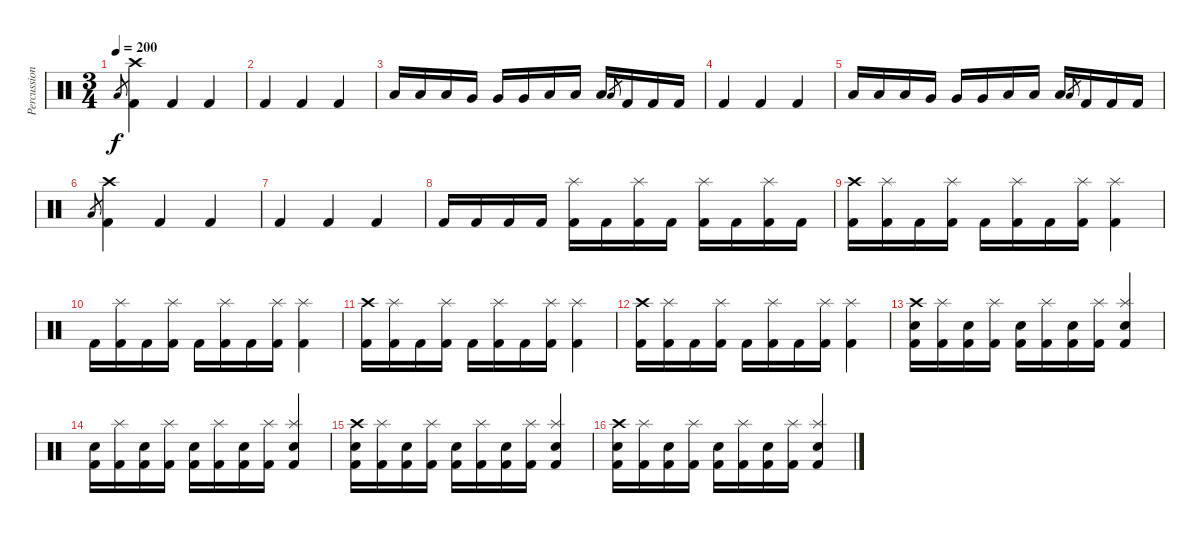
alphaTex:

\track ("Percussion" "Percussion") {instrument percussion}
\staff {score}
\articulation defaults
\ts (3 4)
\tempo 200
\clef neutral
\ks c "Low Tom (hit)".8{gr dy f}
("Crash high (hit)" "Kick (hit) 2").4 "Kick (hit) 2".4 "Kick (hit) 2".4 |
"Kick (hit) 2".4 "Kick (hit) 2".4 "Kick (hit) 2".4 |
"Low Tom (hit)".16 "Low Tom (hit)".16 "Low Tom (hit)".16 "Very Low Tom (hit)".16 "Very Low Tom (hit)".16 "Very Low Tom (hit)".16 "Low Floor Tom (hit)".16 "Low Floor Tom (hit)".16 "Low Floor Tom (hit)".16 "Low Tom (hit)".8{gr} "Kick (hit) 2".16 "Kick (hit) 2".16 "Kick (hit) 2".16 |
"Kick (hit) 2".4 "Kick (hit) 2".4 "Kick (hit) 2".4 |
"Low Tom (hit)".16 "Low Tom (hit)".16 "Low Tom (hit)".16 "Very Low Tom (hit)".16 "Very Low Tom (hit)".16 "Very Low Tom (hit)".16 "Low Floor Tom (hit)".16 "Low Floor Tom (hit)".16 "Low Floor Tom (hit)".16 "Low Tom (hit)".8{gr} "Kick (hit) 2".16 "Kick (hit) 2".16 "Kick (hit) 2".16 |
"Low Tom (hit)".8{gr} ("Crash high (hit)" "Kick (hit) 2").4 "Kick (hit) 2".4 "Kick (hit) 2".4 |
"Kick (hit) 2".4 "Kick (hit) 2".4 "Kick (hit) 2".4 |
"Kick (hit) 2".16 "Kick (hit) 2".16 "Kick (hit) 2".16 "Kick (hit) 2".16 ("Splash (hit)" "Kick (hit) 2").16 "Kick (hit) 2".16 ("Splash (hit)" "Kick (hit) 2").16 "Kick (hit) 2".16 ("Splash (hit)" "Kick (hit) 2").16 "Kick (hit) 2".16 ("Splash (hit)" "Kick (hit) 2").16 "Kick (hit) 2".16 |
("Crash high (hit)" "Kick (hit) 2").16 ("Splash (hit)" "Kick (hit) 2").16 "Kick (hit) 2".16 ("Splash (hit)" "Kick (hit) 2").16 "Kick (hit) 2".16 ("Splash (hit)" "Kick (hit) 2").16 "Kick (hit) 2".16 ("Splash (hit)" "Kick (hit) 2").16 ("Splash (hit)" "Kick (hit) 2").4 |
"Kick (hit) 2".16 ("Splash (hit)" "Kick (hit) 2").16 "Kick (hit) 2".16 ("Splash (hit)" "Kick (hit) 2").16 "Kick (hit) 2".16 ("Splash (hit)" "Kick (hit) 2").16 "Kick (hit) 2".16 ("Splash (hit)" "Kick (hit) 2").16 ("Splash (hit)" "Kick (hit) 2").4 |
("Crash high (hit)" "Kick (hit) 2").16 ("Splash (hit)" "Kick (hit) 2").16 "Kick (hit) 2".16 ("Splash (hit)" "Kick (hit) 2").16 "Kick (hit) 2".16 ("Splash (hit)" "Kick (hit) 2").16 "Kick (hit) 2".16 ("Splash (hit)" "Kick (hit) 2").16 ("Splash (hit)" "Kick (hit) 2").4 |
("Crash high (hit)" "Kick (hit) 2").16 ("Splash (hit)" "Kick (hit) 2").16 "Kick (hit) 2".16 ("Splash (hit)" "Kick (hit) 2").16 "Kick (hit) 2".16 ("Splash (hit)" "Kick (hit) 2").16 "Kick (hit) 2".16 ("Splash (hit)" "Kick (hit) 2").16 ("Splash (hit)" "Kick (hit) 2").4 |
("Crash high (hit)" "Snare (hit) 2" "Kick (hit) 2").16 ("Splash (hit)" "Kick (hit) 2").16 ("Snare (hit) 2" "Kick (hit) 2").16 ("Splash (hit)" "Kick (hit) 2").16 ("Snare (hit) 2" "Kick (hit) 2").16 ("Splash (hit)" "Kick (hit) 2").16 ("Snare (hit) 2" "Kick (hit) 2").16 ("Splash (hit)" "Kick (hit) 2").16 ("Splash (hit)" "Snare (hit) 2" "Kick (hit) 2").4 |
("Snare (hit) 2" "Kick (hit) 2").16 ("Splash (hit)" "Kick (hit) 2").16 ("Snare (hit) 2" "Kick (hit) 2").16 ("Splash (hit)" "Kick (hit) 2").16 ("Snare (hit) 2" "Kick (hit) 2").16 ("Splash (hit)" "Kick (hit) 2").16 ("Snare (hit) 2" "Kick (hit) 2").16 ("Splash (hit)" "Kick (hit) 2").16 ("Splash (hit)" "Snare (hit) 2" "Kick (hit) 2").4 |
("Crash high (hit)" "Snare (hit) 2" "Kick (hit) 2").16 ("Splash (hit)" "Kick (hit) 2").16 ("Snare (hit) 2" "Kick (hit) 2").16 ("Splash (hit)" "Kick (hit) 2").16 ("Snare (hit) 2" "Kick (hit) 2").16 ("Splash (hit)" "Kick (hit) 2").16 ("Snare (hit) 2" "Kick (hit) 2").16 ("Splash (hit)" "Kick (hit) 2").16 ("Splash (hit)" "Snare (hit) 2" "Kick (hit) 2").4 |
("Crash high (hit)" "Snare (hit) 2" "Kick (hit) 2").16 ("Splash (hit)" "Kick (hit) 2").16 ("Snare (hit) 2" "Kick (hit) 2").16 ("Splash (hit)" "Kick (hit) 2").16 ("Snare (hit) 2" "Kick (hit) 2").16 ("Splash (hit)" "Kick (hit) 2").16 ("Snare (hit) 2" "Kick (hit) 2").16 ("Splash (hit)" "Kick (hit) 2").16 ("Splash (hit)" "Snare (hit) 2" "Kick (hit) 2").4
